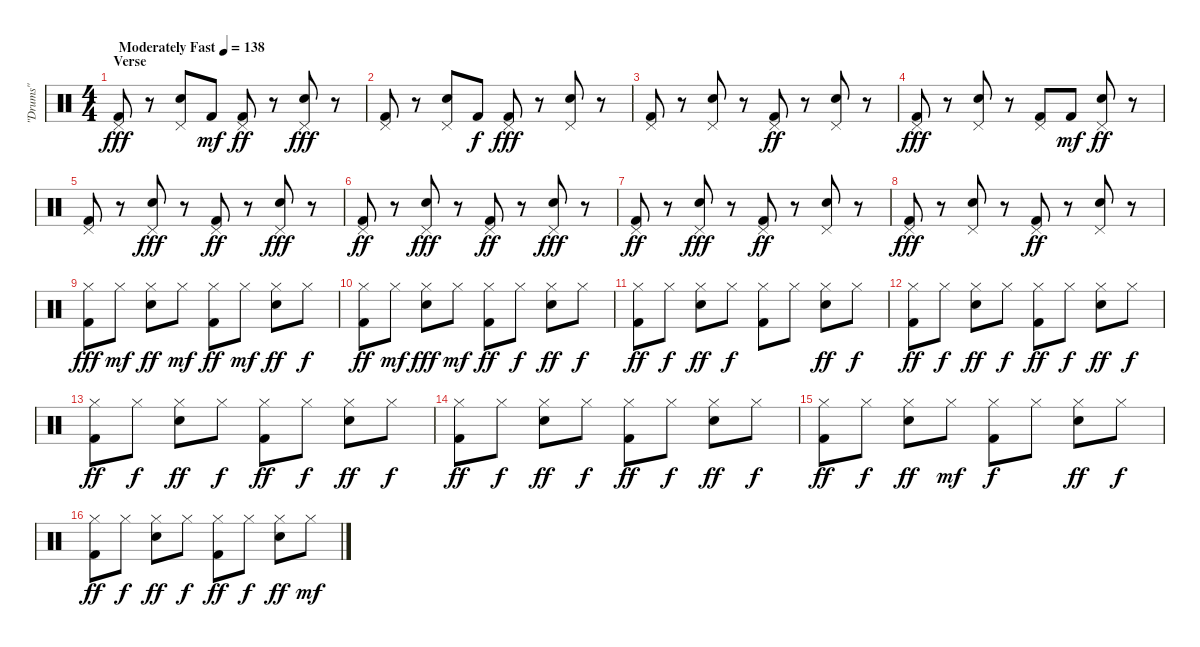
\track ("\"Drums\"" "\"Drums\"") {instrument percussion}
\staff {score}
\articulation defaults
\ts (4 4)
\section ("" "Verse")
\tempo (138 "Moderately Fast")
\clef neutral
\ks c
("Kick (hit) 2" "Pedal Hi-Hat (hit)").8{dy fff} r.8 ("Electric Snare (hit)" "Pedal Hi-Hat (hit)").8 "Kick (hit) 2".8{dy mf} ("Kick (hit) 2" "Pedal Hi-Hat (hit)").8{dy ff} r.8 ("Electric Snare (hit)" "Pedal Hi-Hat (hit)").8{dy fff} r.8 |
("Kick (hit) 2" "Pedal Hi-Hat (hit)").8 r.8 ("Electric Snare (hit)" "Pedal Hi-Hat (hit)").8 "Kick (hit) 2".8{dy f} ("Kick (hit) 2" "Pedal Hi-Hat (hit)").8{dy fff} r.8 ("Electric Snare (hit)" "Pedal Hi-Hat (hit)").8 r.8 |
("Kick (hit) 2" "Pedal Hi-Hat (hit)").8 r.8 ("Electric Snare (hit)" "Pedal Hi-Hat (hit)").8 r.8 ("Kick (hit) 2" "Pedal Hi-Hat (hit)").8{dy ff} r.8 ("Electric Snare (hit)" "Pedal Hi-Hat (hit)").8 r.8 |
("Kick (hit) 2" "Pedal Hi-Hat (hit)").8{dy fff} r.8 ("Electric Snare (hit)" "Pedal Hi-Hat (hit)").8 r.8 ("Kick (hit) 2" "Pedal Hi-Hat (hit)").8 "Kick (hit) 2".8{dy mf} ("Electric Snare (hit)" "Pedal Hi-Hat (hit)").8{dy ff} r.8 |
("Kick (hit) 2" "Pedal Hi-Hat (hit)").8 r.8 ("Electric Snare (hit)" "Pedal Hi-Hat (hit)").8{dy fff} r.8 ("Kick (hit) 2" "Pedal Hi-Hat (hit)").8{dy ff} r.8 ("Electric Snare (hit)" "Pedal Hi-Hat (hit)").8{dy fff} r.8 |
("Kick (hit) 2" "Pedal Hi-Hat (hit)").8{dy ff} r.8 ("Electric Snare (hit)" "Pedal Hi-Hat (hit)").8{dy fff} r.8 ("Kick (hit) 2" "Pedal Hi-Hat (hit)").8{dy ff} r.8 ("Electric Snare (hit)" "Pedal Hi-Hat (hit)").8{dy fff} r.8 |
("Kick (hit) 2" "Pedal Hi-Hat (hit)").8{dy ff} r.8 ("Electric Snare (hit)" "Pedal Hi-Hat (hit)").8{dy fff} r.8 ("Kick (hit) 2" "Pedal Hi-Hat (hit)").8{dy ff} r.8 ("Electric Snare (hit)" "Pedal Hi-Hat (hit)").8 r.8 |
("Kick (hit) 2" "Pedal Hi-Hat (hit)").8{dy fff} r.8 ("Electric Snare (hit)" "Pedal Hi-Hat (hit)").8 r.8 ("Kick (hit) 2" "Pedal Hi-Hat (hit)").8{dy ff} r.8 ("Electric Snare (hit)" "Pedal Hi-Hat (hit)").8 r.8 |
("Kick (hit) 2" "Hi-Hat (closed)").8{dy fff} "Hi-Hat (closed)".8{dy mf} ("Electric Snare (hit)" "Hi-Hat (closed)").8{dy ff} "Hi-Hat (closed)".8{dy mf} ("Kick (hit) 2" "Hi-Hat (closed)").8{dy ff} "Hi-Hat (closed)".8{dy mf} ("Electric Snare (hit)" "Hi-Hat (closed)").8{dy ff} "Hi-Hat (closed)".8{dy f} |
("Kick (hit) 2" "Hi-Hat (closed)").8{dy ff} "Hi-Hat (closed)".8{dy mf} ("Electric Snare (hit)" "Hi-Hat (closed)").8{dy fff} "Hi-Hat (closed)".8{dy mf} ("Kick (hit) 2" "Hi-Hat (closed)").8{dy ff} "Hi-Hat (closed)".8{dy f} ("Electric Snare (hit)" "Hi-Hat (closed)").8{dy ff} "Hi-Hat (closed)".8{dy f} |
("Kick (hit) 2" "Hi-Hat (closed)").8{dy ff} "Hi-Hat (closed)".8{dy f} ("Electric Snare (hit)" "Hi-Hat (closed)").8{dy ff} "Hi-Hat (closed)".8{dy f} ("Kick (hit) 2" "Hi-Hat (closed)").8 "Hi-Hat (closed)".8 ("Electric Snare (hit)" "Hi-Hat (closed)").8{dy ff} "Hi-Hat (closed)".8{dy f} |
("Kick (hit) 2" "Hi-Hat (closed)").8{dy ff} "Hi-Hat (closed)".8{dy f} ("Electric Snare (hit)" "Hi-Hat (closed)").8{dy ff} "Hi-Hat (closed)".8{dy f} ("Kick (hit) 2" "Hi-Hat (closed)").8{dy ff} "Hi-Hat (closed)".8{dy f} ("Electric Snare (hit)" "Hi-Hat (closed)").8{dy ff} "Hi-Hat (closed)".8{dy f} |
("Kick (hit) 2" "Hi-Hat (closed)").8{dy ff} "Hi-Hat (closed)".8{dy f} ("Electric Snare (hit)" "Hi-Hat (closed)").8{dy ff} "Hi-Hat (closed)".8{dy f} ("Kick (hit) 2" "Hi-Hat (closed)").8{dy ff} "Hi-Hat (closed)".8{dy f} ("Electric Snare (hit)" "Hi-Hat (closed)").8{dy ff} "Hi-Hat (closed)".8{dy f} |
("Kick (hit) 2" "Hi-Hat (closed)").8{dy ff} "Hi-Hat (closed)".8{dy f} ("Electric Snare (hit)" "Hi-Hat (closed)").8{dy ff} "Hi-Hat (closed)".8{dy f} ("Kick (hit) 2" "Hi-Hat (closed)").8{dy ff} "Hi-Hat (closed)".8{dy f} ("Electric Snare (hit)" "Hi-Hat (closed)").8{dy ff} "Hi-Hat (closed)".8{dy f} |
("Kick (hit) 2" "Hi-Hat (closed)").8{dy ff} "Hi-Hat (closed)".8{dy f} ("Electric Snare (hit)" "Hi-Hat (closed)").8{dy ff} "Hi-Hat (closed)".8{dy mf} ("Kick (hit) 2" "Hi-Hat (closed)").8{dy f} "Hi-Hat (closed)".8 ("Electric Snare (hit)" "Hi-Hat (closed)").8{dy ff} "Hi-Hat (closed)".8{dy f} |
("Kick (hit) 2" "Hi-Hat (closed)").8{dy ff} "Hi-Hat (closed)".8{dy f} ("Electric Snare (hit)" "Hi-Hat (closed)").8{dy ff} "Hi-Hat (closed)".8{dy f} ("Kick (hit) 2" "Hi-Hat (closed)").8{dy ff} "Hi-Hat (closed)".8{dy f} ("Electric Snare (hit)" "Hi-Hat (closed)").8{dy ff} "Hi-Hat (closed)".8{dy mf}
